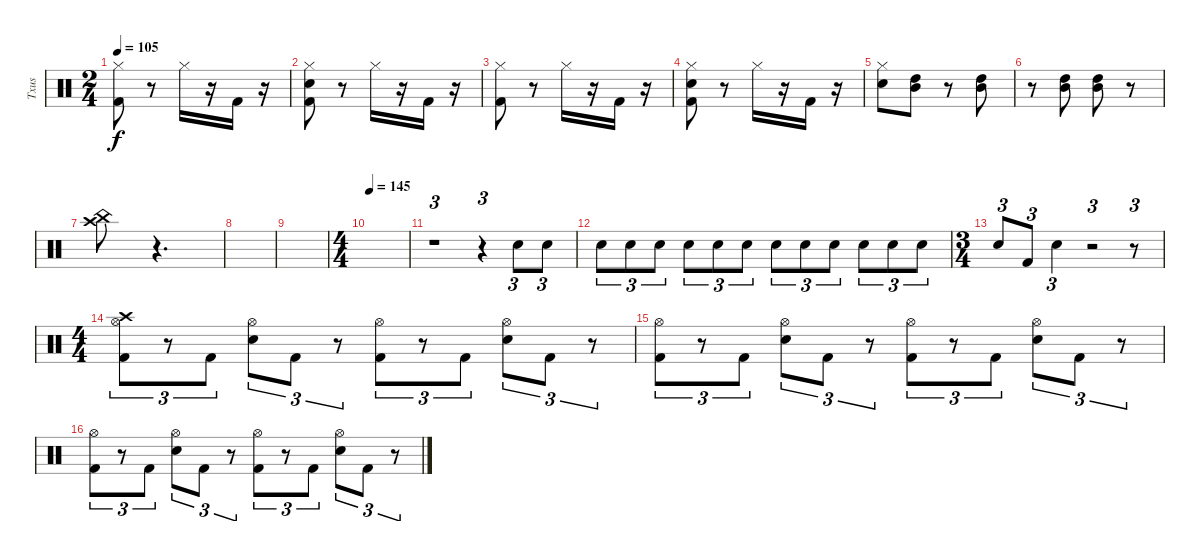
\track ("Txus" "Txus") {instrument percussion}
\staff {score}
\articulation defaults
\ts (2 4)
\tempo 105
\clef neutral
\ks c
("Hi-Hat (closed)" "Kick (hit) 2").8{dy f} r.8 "Hi-Hat (closed)".16 r.16 "Kick (hit) 2".16 r.16 |
("Hi-Hat (closed)" "Electric Snare (hit)" "Kick (hit) 2").8 r.8 "Hi-Hat (closed)".16 r.16 "Kick (hit) 2".16 r.16 |
("Hi-Hat (closed)" "Kick (hit) 2").8 r.8 "Hi-Hat (closed)".16 r.16 "Kick (hit) 2".16 r.16 |
("Hi-Hat (closed)" "Electric Snare (hit)" "Kick (hit) 2").8 r.8 "Hi-Hat (closed)".16 r.16 "Kick (hit) 2".16 r.16 |
("Electric Snare (hit)" "Hi-Hat (closed)").8 ("High Tom (hit)" "Mid Tom (hit)").8 r.8 ("High Tom (hit)" "Mid Tom (hit)").8 |
r.8 ("High Tom (hit)" "Mid Tom (hit)").8 ("High Tom (hit)" "Mid Tom (hit)").8 r.8 |
("Crash high (hit)" "China (hit)").8 r.4{d} |
|
|
\ts (4 4)
\tempo 145
|
r.1{tu (3 2)} r.4{tu (3 2)} "Electric Snare (hit)".8{tu (3 2)} "Electric Snare (hit)".8{tu (3 2)} |
"Electric Snare (hit)".8{tu (3 2)} "Electric Snare (hit)".8{tu (3 2)} "Electric Snare (hit)".8{tu (3 2)} "Electric Snare (hit)".8{tu (3 2)} "Electric Snare (hit)".8{tu (3 2)} "Electric Snare (hit)".8{tu (3 2)} "Electric Snare (hit)".8{tu (3 2)} "Electric Snare (hit)".8{tu (3 2)} "Electric Snare (hit)".8{tu (3 2)} "Electric Snare (hit)".8{tu (3 2)} "Electric Snare (hit)".8{tu (3 2)} "Electric Snare (hit)".8{tu (3 2)} |
\ts (3 4)
"Electric Snare (hit)".8{tu (3 2)} "Kick (hit) 2".8{tu (3 2)} "Electric Snare (hit)".4{tu (3 2)} r.2{tu (3 2)} r.8{tu (3 2)} |
\ts (4 4)
("Kick (hit) 2" "Hi-Hat (open)" "Crash high (hit)").8{tu (3 2)} r.8{tu (3 2)} "Kick (hit) 2".8{tu (3 2)} ("Hi-Hat (open)" "Electric Snare (hit)").8{tu (3 2)} "Kick (hit) 2".8{tu (3 2)} r.8{tu (3 2)} ("Kick (hit) 2" "Hi-Hat (open)").8{tu (3 2)} r.8{tu (3 2)} "Kick (hit) 2".8{tu (3 2)} ("Hi-Hat (open)" "Electric Snare (hit)").8{tu (3 2)} "Kick (hit) 2".8{tu (3 2)} r.8{tu (3 2)} |
("Kick (hit) 2" "Hi-Hat (open)").8{tu (3 2)} r.8{tu (3 2)} "Kick (hit) 2".8{tu (3 2)} ("Hi-Hat (open)" "Electric Snare (hit)").8{tu (3 2)} "Kick (hit) 2".8{tu (3 2)} r.8{tu (3 2)} ("Kick (hit) 2" "Hi-Hat (open)").8{tu (3 2)} r.8{tu (3 2)} "Kick (hit) 2".8{tu (3 2)} ("Hi-Hat (open)" "Electric Snare (hit)").8{tu (3 2)} "Kick (hit) 2".8{tu (3 2)} r.8{tu (3 2)} |
("Kick (hit) 2" "Hi-Hat (open)").8{tu (3 2)} r.8{tu (3 2)} "Kick (hit) 2".8{tu (3 2)} ("Hi-Hat (open)" "Electric Snare (hit)").8{tu (3 2)} "Kick (hit) 2".8{tu (3 2)} r.8{tu (3 2)} ("Kick (hit) 2" "Hi-Hat (open)").8{tu (3 2)} r.8{tu (3 2)} "Kick (hit) 2".8{tu (3 2)} ("Hi-Hat (open)" "Electric Snare (hit)").8{tu (3 2)} "Kick (hit) 2".8{tu (3 2)} r.8{tu (3 2)}
